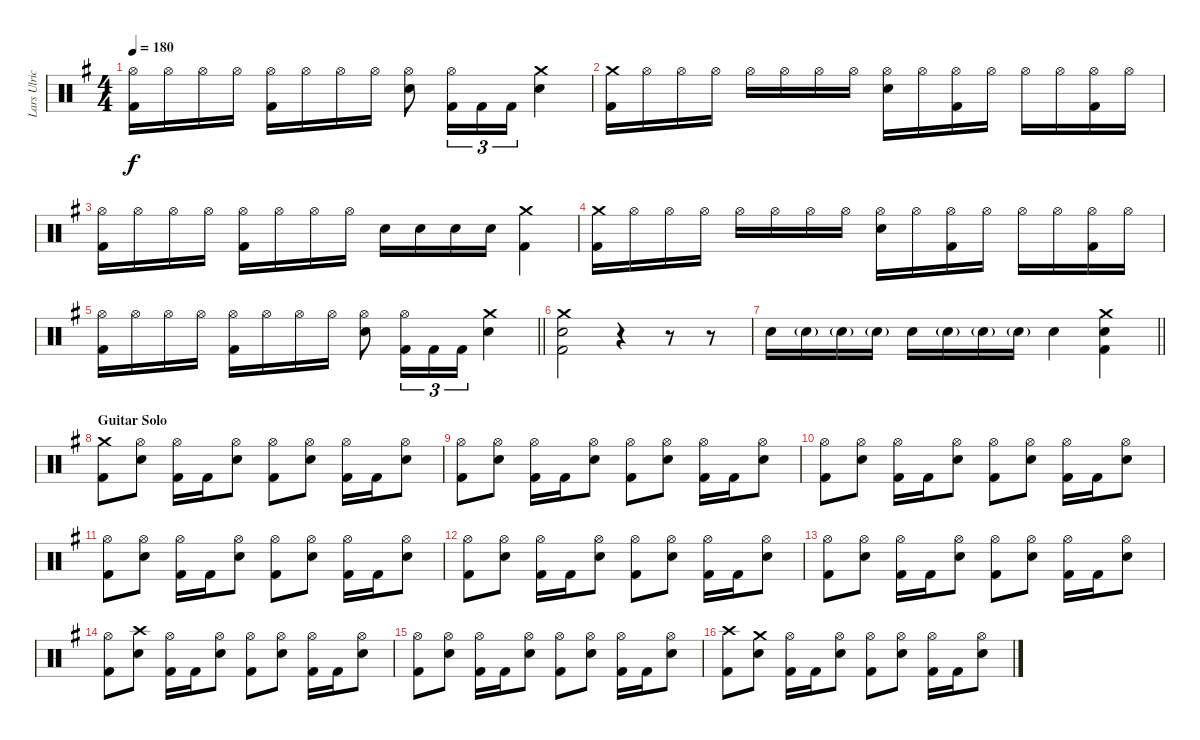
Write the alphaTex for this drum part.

\track ("Lars Ulrich" "Lars Ulric") {instrument percussion}
\staff {score}
\articulation defaults
\ts (4 4)
\tempo 180
\clef neutral
\ks eminor
("Hi-Hat (open)" "Kick (hit) 2").16{dy f} "Hi-Hat (open)".16 "Hi-Hat (open)".16 "Hi-Hat (open)".16 ("Hi-Hat (open)" "Kick (hit) 2").16 "Hi-Hat (open)".16 "Hi-Hat (open)".16 "Hi-Hat (open)".16 ("Hi-Hat (open)" "Snare (hit) 2").8 ("Hi-Hat (open)" "Kick (hit) 2").16{tu (3 2)} "Kick (hit) 2".16{tu (3 2)} "Kick (hit) 2".16{tu (3 2)} ("Crash medium (hit)" "Snare (hit) 2").4 |
("Crash medium (hit)" "Kick (hit) 2").16 "Hi-Hat (open)".16 "Hi-Hat (open)".16 "Hi-Hat (open)".16 "Hi-Hat (open)".16 "Hi-Hat (open)".16 "Hi-Hat (open)".16 "Hi-Hat (open)".16 ("Hi-Hat (open)" "Snare (hit) 2").16 "Hi-Hat (open)".16 ("Hi-Hat (open)" "Kick (hit) 2").16 "Hi-Hat (open)".16 "Hi-Hat (open)".16 "Hi-Hat (open)".16 ("Hi-Hat (open)" "Kick (hit) 2").16 "Hi-Hat (open)".16 |
("Hi-Hat (open)" "Kick (hit) 2").16 "Hi-Hat (open)".16 "Hi-Hat (open)".16 "Hi-Hat (open)".16 ("Hi-Hat (open)" "Kick (hit) 2").16 "Hi-Hat (open)".16 "Hi-Hat (open)".16 "Hi-Hat (open)".16 "Snare (hit) 2".16 "Snare (hit) 2".16 "Snare (hit) 2".16 "Snare (hit) 2".16 ("Crash medium (hit)" "Kick (hit) 2").4 |
("Crash medium (hit)" "Kick (hit) 2").16 "Hi-Hat (open)".16 "Hi-Hat (open)".16 "Hi-Hat (open)".16 "Hi-Hat (open)".16 "Hi-Hat (open)".16 "Hi-Hat (open)".16 "Hi-Hat (open)".16 ("Hi-Hat (open)" "Snare (hit) 2").16 "Hi-Hat (open)".16 ("Hi-Hat (open)" "Kick (hit) 2").16 "Hi-Hat (open)".16 "Hi-Hat (open)".16 "Hi-Hat (open)".16 ("Hi-Hat (open)" "Kick (hit) 2").16 "Hi-Hat (open)".16 |
\barLineRight lightlight
("Hi-Hat (open)" "Kick (hit) 2").16 "Hi-Hat (open)".16 "Hi-Hat (open)".16 "Hi-Hat (open)".16 ("Hi-Hat (open)" "Kick (hit) 2").16 "Hi-Hat (open)".16 "Hi-Hat (open)".16 "Hi-Hat (open)".16 ("Hi-Hat (open)" "Snare (hit) 2").8 ("Hi-Hat (open)" "Kick (hit) 2").16{tu (3 2)} "Kick (hit) 2".16{tu (3 2)} "Kick (hit) 2".16{tu (3 2)} ("Crash medium (hit)" "Snare (hit) 2").4 |
("Crash medium (hit)" "Snare (hit) 2" "Kick (hit) 2").2 r.4 r.8 r.8 |
\barLineRight lightlight "Snare (hit) 2".16 "Snare (hit) 2"{g}.16 "Snare (hit) 2"{g}.16 "Snare (hit) 2"{g}.16 "Snare (hit) 2".16 "Snare (hit) 2"{g}.16 "Snare (hit) 2"{g}.16 "Snare (hit) 2"{g}.16 "Snare (hit) 2".4
("Crash medium (hit)" "Snare (hit) 2" "Kick (hit) 2").4 |
\section ("" "Guitar Solo")
("Crash medium (hit)" "Kick (hit) 2").8 ("Hi-Hat (open)" "Snare (hit) 2").8 ("Hi-Hat (open)" "Kick (hit) 2").16 "Kick (hit) 2".16 ("Hi-Hat (open)" "Snare (hit) 2").8 ("Hi-Hat (open)" "Kick (hit) 2").8 ("Hi-Hat (open)" "Snare (hit) 2").8 ("Hi-Hat (open)" "Kick (hit) 2").16 "Kick (hit) 2".16 ("Hi-Hat (open)" "Snare (hit) 2").8 |
("Hi-Hat (open)" "Kick (hit) 2").8 ("Hi-Hat (open)" "Snare (hit) 2").8 ("Hi-Hat (open)" "Kick (hit) 2").16 "Kick (hit) 2".16 ("Hi-Hat (open)" "Snare (hit) 2").8 ("Hi-Hat (open)" "Kick (hit) 2").8 ("Hi-Hat (open)" "Snare (hit) 2").8 ("Hi-Hat (open)" "Kick (hit) 2").16 "Kick (hit) 2".16 ("Hi-Hat (open)" "Snare (hit) 2").8 |
("Hi-Hat (open)" "Kick (hit) 2").8 ("Hi-Hat (open)" "Snare (hit) 2").8 ("Hi-Hat (open)" "Kick (hit) 2").16 "Kick (hit) 2".16 ("Hi-Hat (open)" "Snare (hit) 2").8 ("Hi-Hat (open)" "Kick (hit) 2").8 ("Hi-Hat (open)" "Snare (hit) 2").8 ("Hi-Hat (open)" "Kick (hit) 2").16 "Kick (hit) 2".16 ("Hi-Hat (open)" "Snare (hit) 2").8 |
("Hi-Hat (open)" "Kick (hit) 2").8 ("Hi-Hat (open)" "Snare (hit) 2").8 ("Hi-Hat (open)" "Kick (hit) 2").16 "Kick (hit) 2".16 ("Hi-Hat (open)" "Snare (hit) 2").8 ("Hi-Hat (open)" "Kick (hit) 2").8 ("Hi-Hat (open)" "Snare (hit) 2").8 ("Hi-Hat (open)" "Kick (hit) 2").16 "Kick (hit) 2".16 ("Hi-Hat (open)" "Snare (hit) 2").8 |
("Hi-Hat (open)" "Kick (hit) 2").8 ("Hi-Hat (open)" "Snare (hit) 2").8 ("Hi-Hat (open)" "Kick (hit) 2").16 "Kick (hit) 2".16 ("Hi-Hat (open)" "Snare (hit) 2").8 ("Hi-Hat (open)" "Kick (hit) 2").8 ("Hi-Hat (open)" "Snare (hit) 2").8 ("Hi-Hat (open)" "Kick (hit) 2").16 "Kick (hit) 2".16 ("Hi-Hat (open)" "Snare (hit) 2").8 |
("Hi-Hat (open)" "Kick (hit) 2").8 ("Hi-Hat (open)" "Snare (hit) 2").8 ("Hi-Hat (open)" "Kick (hit) 2").16 "Kick (hit) 2".16 ("Hi-Hat (open)" "Snare (hit) 2").8 ("Hi-Hat (open)" "Kick (hit) 2").8 ("Hi-Hat (open)" "Snare (hit) 2").8 ("Hi-Hat (open)" "Kick (hit) 2").16 "Kick (hit) 2".16 ("Hi-Hat (open)" "Snare (hit) 2").8 |
("Hi-Hat (open)" "Kick (hit) 2").8 ("Crash high (hit)" "Snare (hit) 2").8 ("Hi-Hat (open)" "Kick (hit) 2").16 "Kick (hit) 2".16 ("Hi-Hat (open)" "Snare (hit) 2").8 ("Hi-Hat (open)" "Kick (hit) 2").8 ("Hi-Hat (open)" "Snare (hit) 2").8 ("Hi-Hat (open)" "Kick (hit) 2").16 "Kick (hit) 2".16 ("Hi-Hat (open)" "Snare (hit) 2").8 |
("Hi-Hat (open)" "Kick (hit) 2").8 ("Hi-Hat (open)" "Snare (hit) 2").8 ("Hi-Hat (open)" "Kick (hit) 2").16 "Kick (hit) 2".16 ("Hi-Hat (open)" "Snare (hit) 2").8 ("Hi-Hat (open)" "Kick (hit) 2").8 ("Hi-Hat (open)" "Snare (hit) 2").8 ("Hi-Hat (open)" "Kick (hit) 2").16 "Kick (hit) 2".16 ("Hi-Hat (open)" "Snare (hit) 2").8 |
("Crash high (hit)" "Kick (hit) 2").8 ("Crash medium (hit)" "Snare (hit) 2").8 ("Hi-Hat (open)" "Kick (hit) 2").16 "Kick (hit) 2".16 ("Hi-Hat (open)" "Snare (hit) 2").8 ("Hi-Hat (open)" "Kick (hit) 2").8 ("Hi-Hat (open)" "Snare (hit) 2").8 ("Hi-Hat (open)" "Kick (hit) 2").16 "Kick (hit) 2".16 ("Hi-Hat (open)" "Snare (hit) 2").8
